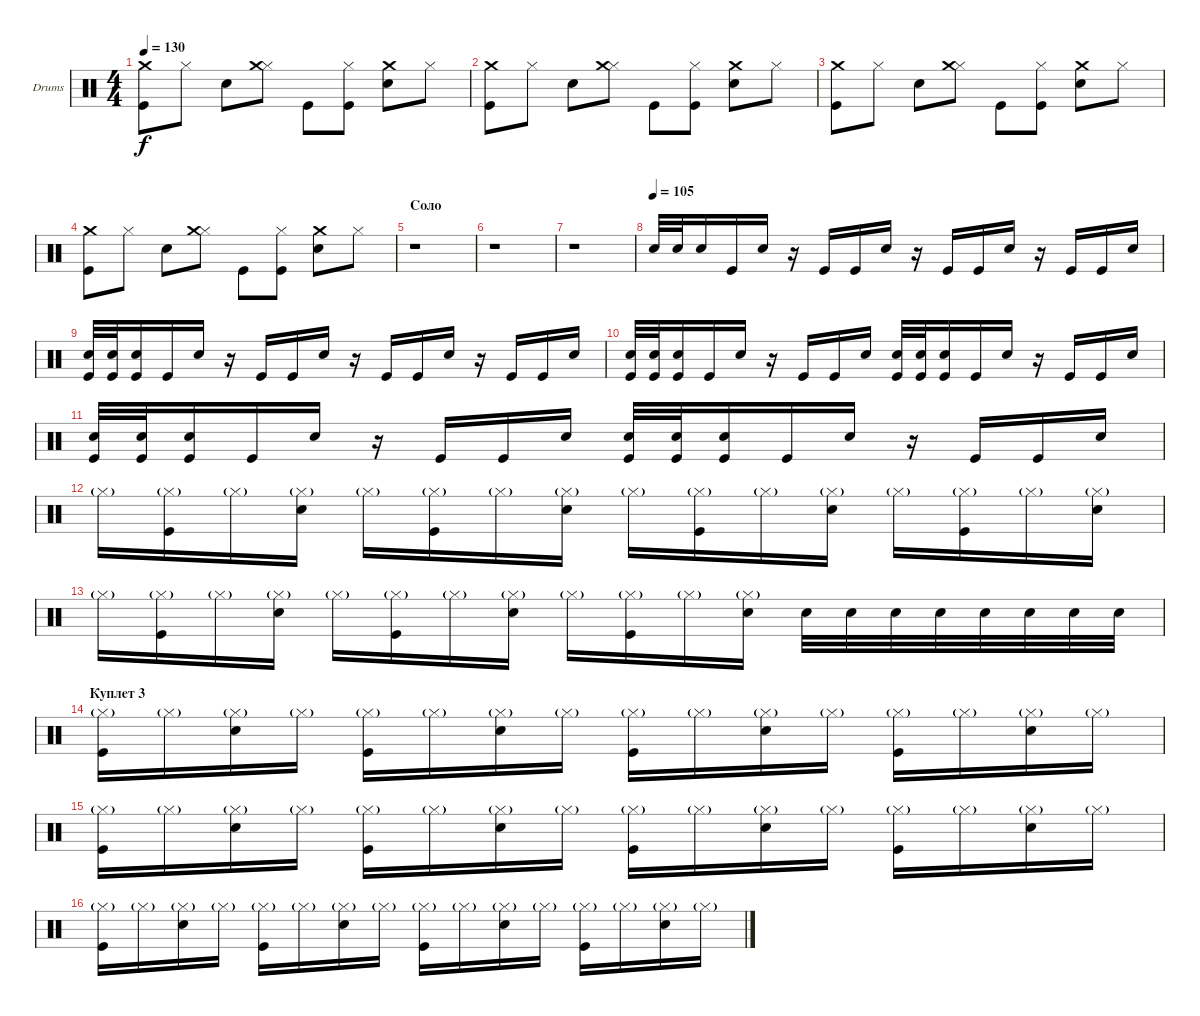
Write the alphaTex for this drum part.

\bracketExtendMode groupsimilarinstruments
\firstSystemTrackNameOrientation horizontal
\otherSystemsTrackNameOrientation horizontal
\track ("Drumkit" "Drums") {instrument percussion}
\staff {score}
\articulation defaults
\ts (4 4)
\tempo 130
\clef neutral
\ks c
("Kick (hit)" "Crash medium (hit)").8{dy f} "Hi-Hat (closed)".8 "Snare (hit) 2".8 ("Hi-Hat (closed)" "Crash medium (hit)").8 "Kick (hit)".8 ("Kick (hit)" "Hi-Hat (closed)").8 ("Snare (hit) 2" "Crash medium (hit)").8 "Hi-Hat (closed)".8 |
("Kick (hit)" "Crash medium (hit)").8 "Hi-Hat (closed)".8 "Snare (hit) 2".8 ("Hi-Hat (closed)" "Crash medium (hit)").8 "Kick (hit)".8 ("Kick (hit)" "Hi-Hat (closed)").8 ("Snare (hit) 2" "Crash medium (hit)").8 "Hi-Hat (closed)".8 |
("Kick (hit)" "Crash medium (hit)").8 "Hi-Hat (closed)".8 "Snare (hit) 2".8 ("Hi-Hat (closed)" "Crash medium (hit)").8 "Kick (hit)".8 ("Kick (hit)" "Hi-Hat (closed)").8 ("Snare (hit) 2" "Crash medium (hit)").8 "Hi-Hat (closed)".8 |
("Kick (hit)" "Crash medium (hit)").8 "Hi-Hat (closed)".8 "Snare (hit) 2".8 ("Hi-Hat (closed)" "Crash medium (hit)").8 "Kick (hit)".8 ("Kick (hit)" "Hi-Hat (closed)").8 ("Snare (hit) 2" "Crash medium (hit)").8 "Hi-Hat (closed)".8 |
\section ("" "Соло")
r.1 |
r.1 |
r.1 |
\tempo (105)
"Snare (hit) 2".32 "Snare (hit) 2".32 "Snare (hit) 2".16 "Kick (hit)".16 "Snare (hit) 2".16 r.16 "Kick (hit)".16 "Kick (hit)".16 "Snare (hit) 2".16 r.16 "Kick (hit)".16 "Kick (hit)".16 "Snare (hit) 2".16 r.16 "Kick (hit)".16 "Kick (hit)".16 "Snare (hit) 2".16 |
("Snare (hit) 2" "Kick (hit)").32 ("Snare (hit) 2" "Kick (hit)").32 ("Snare (hit) 2" "Kick (hit)").16 "Kick (hit)".16 "Snare (hit) 2".16 r.16 "Kick (hit)".16 "Kick (hit)".16 "Snare (hit) 2".16 r.16 "Kick (hit)".16 "Kick (hit)".16 "Snare (hit) 2".16 r.16 "Kick (hit)".16 "Kick (hit)".16 "Snare (hit) 2".16 |
("Snare (hit) 2" "Kick (hit)").32 ("Snare (hit) 2" "Kick (hit)").32 ("Snare (hit) 2" "Kick (hit)").16 "Kick (hit)".16 "Snare (hit) 2".16 r.16 "Kick (hit)".16 "Kick (hit)".16 "Snare (hit) 2".16 ("Snare (hit) 2" "Kick (hit)").32 ("Snare (hit) 2" "Kick (hit)").32 ("Snare (hit) 2" "Kick (hit)").16 "Kick (hit)".16 "Snare (hit) 2".16 r.16 "Kick (hit)".16 "Kick (hit)".16 "Snare (hit) 2".16 |
("Snare (hit) 2" "Kick (hit)").32 ("Snare (hit) 2" "Kick (hit)").32 ("Snare (hit) 2" "Kick (hit)").16 "Kick (hit)".16 "Snare (hit) 2".16 r.16 "Kick (hit)".16 "Kick (hit)".16 "Snare (hit) 2".16 ("Snare (hit) 2" "Kick (hit)").32 ("Snare (hit) 2" "Kick (hit)").32 ("Snare (hit) 2" "Kick (hit)").16 "Kick (hit)".16 "Snare (hit) 2".16 r.16 "Kick (hit)".16 "Kick (hit)".16 "Snare (hit) 2".16 |
"Hi-Hat (closed)"{g}.16 ("Kick (hit)" "Hi-Hat (closed)"{g}).16 "Hi-Hat (closed)"{g}.16 ("Snare (hit) 2" "Hi-Hat (closed)"{g}).16 "Hi-Hat (closed)"{g}.16 ("Kick (hit)" "Hi-Hat (closed)"{g}).16 "Hi-Hat (closed)"{g}.16 ("Snare (hit) 2" "Hi-Hat (closed)"{g}).16 "Hi-Hat (closed)"{g}.16 ("Kick (hit)" "Hi-Hat (closed)"{g}).16 "Hi-Hat (closed)"{g}.16 ("Snare (hit) 2" "Hi-Hat (closed)"{g}).16 "Hi-Hat (closed)"{g}.16 ("Kick (hit)" "Hi-Hat (closed)"{g}).16 "Hi-Hat (closed)"{g}.16 ("Snare (hit) 2" "Hi-Hat (closed)"{g}).16 |
"Hi-Hat (closed)"{g}.16 ("Kick (hit)" "Hi-Hat (closed)"{g}).16 "Hi-Hat (closed)"{g}.16 ("Snare (hit) 2" "Hi-Hat (closed)"{g}).16 "Hi-Hat (closed)"{g}.16 ("Kick (hit)" "Hi-Hat (closed)"{g}).16 "Hi-Hat (closed)"{g}.16 ("Snare (hit) 2" "Hi-Hat (closed)"{g}).16 "Hi-Hat (closed)"{g}.16 ("Kick (hit)" "Hi-Hat (closed)"{g}).16 "Hi-Hat (closed)"{g}.16 ("Snare (hit) 2" "Hi-Hat (closed)"{g}).16 "Snare (hit) 2".32 "Snare (hit) 2".32 "Snare (hit) 2".32 "Snare (hit) 2".32 "Snare (hit) 2".32 "Snare (hit) 2".32 "Snare (hit) 2".32 "Snare (hit) 2".32 |
\section ("" "Куплет 3")
("Kick (hit)" "Hi-Hat (closed)"{g}).16 "Hi-Hat (closed)"{g}.16 ("Snare (hit) 2" "Hi-Hat (closed)"{g}).16 "Hi-Hat (closed)"{g}.16 ("Kick (hit)" "Hi-Hat (closed)"{g}).16 "Hi-Hat (closed)"{g}.16 ("Snare (hit) 2" "Hi-Hat (closed)"{g}).16 "Hi-Hat (closed)"{g}.16 ("Kick (hit)" "Hi-Hat (closed)"{g}).16 "Hi-Hat (closed)"{g}.16 ("Snare (hit) 2" "Hi-Hat (closed)"{g}).16 "Hi-Hat (closed)"{g}.16 ("Kick (hit)" "Hi-Hat (closed)"{g}).16 "Hi-Hat (closed)"{g}.16 ("Snare (hit) 2" "Hi-Hat (closed)"{g}).16 "Hi-Hat (closed)"{g}.16 |
("Kick (hit)" "Hi-Hat (closed)"{g}).16 "Hi-Hat (closed)"{g}.16 ("Snare (hit) 2" "Hi-Hat (closed)"{g}).16 "Hi-Hat (closed)"{g}.16 ("Kick (hit)" "Hi-Hat (closed)"{g}).16 "Hi-Hat (closed)"{g}.16 ("Snare (hit) 2" "Hi-Hat (closed)"{g}).16 "Hi-Hat (closed)"{g}.16 ("Kick (hit)" "Hi-Hat (closed)"{g}).16 "Hi-Hat (closed)"{g}.16 ("Snare (hit) 2" "Hi-Hat (closed)"{g}).16 "Hi-Hat (closed)"{g}.16 ("Kick (hit)" "Hi-Hat (closed)"{g}).16 "Hi-Hat (closed)"{g}.16 ("Snare (hit) 2" "Hi-Hat (closed)"{g}).16 "Hi-Hat (closed)"{g}.16 |
("Kick (hit)" "Hi-Hat (closed)"{g}).16 "Hi-Hat (closed)"{g}.16 ("Snare (hit) 2" "Hi-Hat (closed)"{g}).16 "Hi-Hat (closed)"{g}.16 ("Kick (hit)" "Hi-Hat (closed)"{g}).16 "Hi-Hat (closed)"{g}.16 ("Snare (hit) 2" "Hi-Hat (closed)"{g}).16 "Hi-Hat (closed)"{g}.16 ("Kick (hit)" "Hi-Hat (closed)"{g}).16 "Hi-Hat (closed)"{g}.16 ("Snare (hit) 2" "Hi-Hat (closed)"{g}).16 "Hi-Hat (closed)"{g}.16 ("Kick (hit)" "Hi-Hat (closed)"{g}).16 "Hi-Hat (closed)"{g}.16 ("Snare (hit) 2" "Hi-Hat (closed)"{g}).16 "Hi-Hat (closed)"{g}.16
